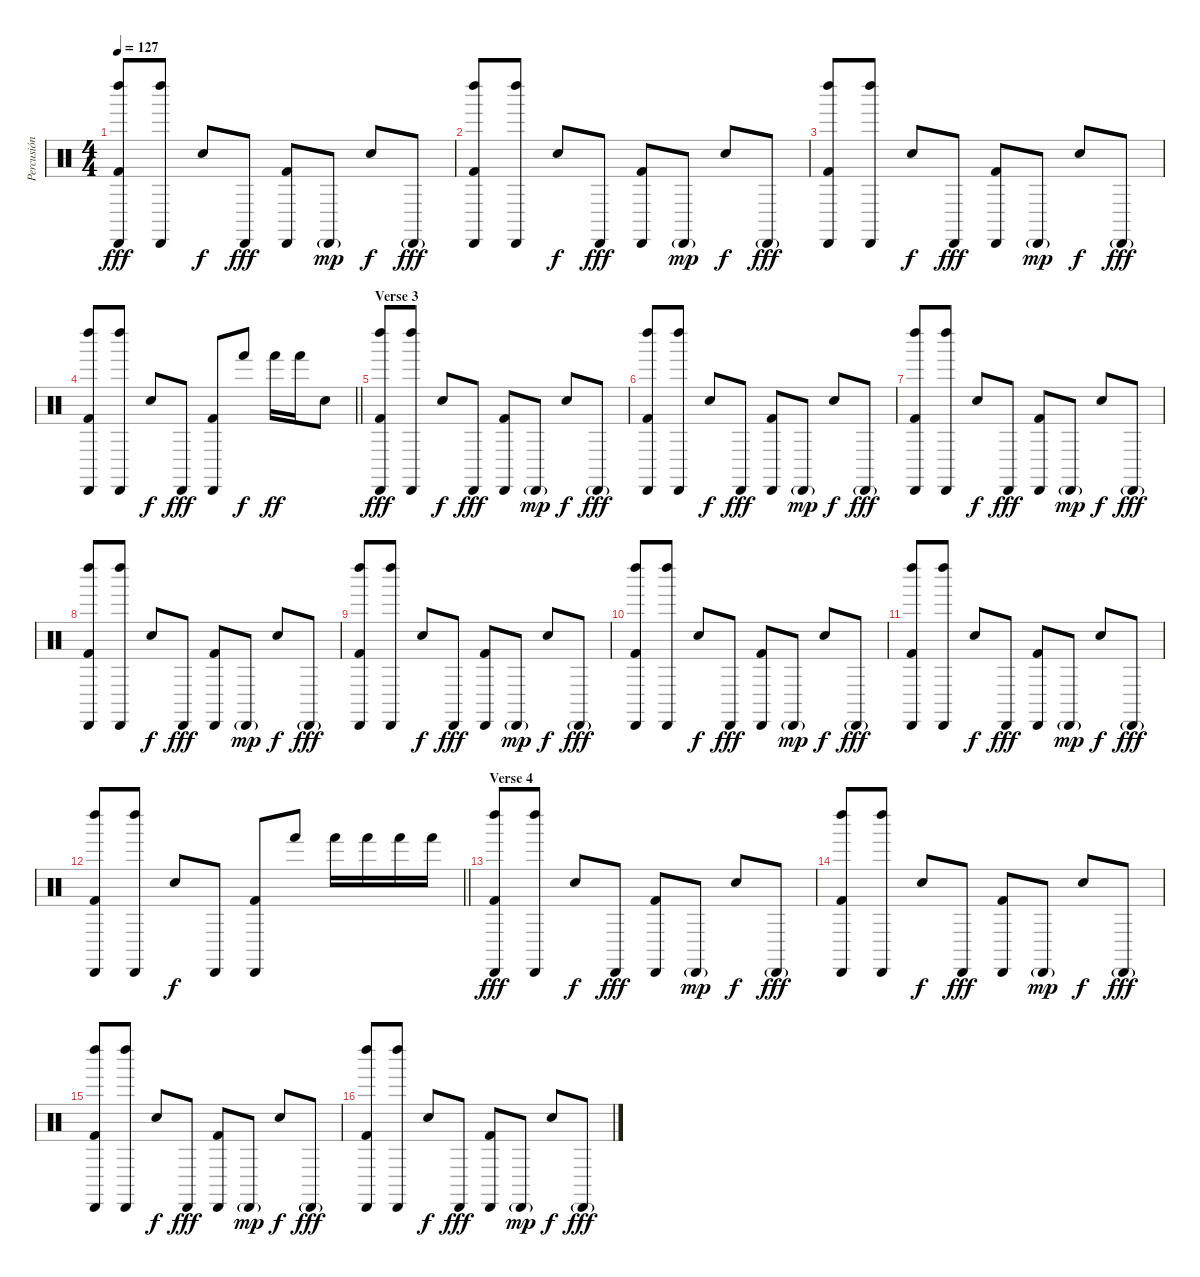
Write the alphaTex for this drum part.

\track ("Percusión" "Percusión") {instrument percussion}
\staff {score}
\articulation defaults
\ts (4 4)
\tempo 127
\clef neutral
\ks c
("Left Maraca (hit)" "Cabasa (hit)" "Kick (hit) 2").8{dy fff} ("Left Maraca (hit)" "Cabasa (hit)").8 "Electric Snare (hit)".8{dy f} "Cabasa (hit)".8{dy fff} ("Cabasa (hit)" "Kick (hit) 2").8 "Cabasa (hit)"{g}.8{dy mp} "Electric Snare (hit)".8{dy f} "Cabasa (hit)"{g}.8{dy fff} |
("Left Maraca (hit)" "Cabasa (hit)" "Kick (hit) 2").8 ("Left Maraca (hit)" "Cabasa (hit)").8 "Electric Snare (hit)".8{dy f} "Cabasa (hit)".8{dy fff} ("Cabasa (hit)" "Kick (hit) 2").8 "Cabasa (hit)"{g}.8{dy mp} "Electric Snare (hit)".8{dy f} "Cabasa (hit)"{g}.8{dy fff} |
("Left Maraca (hit)" "Cabasa (hit)" "Kick (hit) 2").8 ("Left Maraca (hit)" "Cabasa (hit)").8 "Electric Snare (hit)".8{dy f} "Cabasa (hit)".8{dy fff} ("Cabasa (hit)" "Kick (hit) 2").8 "Cabasa (hit)"{g}.8{dy mp} "Electric Snare (hit)".8{dy f} "Cabasa (hit)"{g}.8{dy fff} |
\barLineRight lightlight
("Left Maraca (hit)" "Cabasa (hit)" "Kick (hit) 2").8 ("Left Maraca (hit)" "Cabasa (hit)").8 "Electric Snare (hit)".8{dy f} "Cabasa (hit)".8{dy fff} ("Cabasa (hit)" "Kick (hit) 2").8 "Hand (hit)".8{dy f} "Hand (hit)".16{dy ff} "Hand (hit)".16 "Electric Snare (hit)".8 |
\section ("" "Verse 3")
("Left Maraca (hit)" "Cabasa (hit)" "Kick (hit) 2").8{dy fff} ("Left Maraca (hit)" "Cabasa (hit)").8 "Electric Snare (hit)".8{dy f} "Cabasa (hit)".8{dy fff} ("Cabasa (hit)" "Kick (hit) 2").8 "Cabasa (hit)"{g}.8{dy mp} "Electric Snare (hit)".8{dy f} "Cabasa (hit)"{g}.8{dy fff} |
("Left Maraca (hit)" "Cabasa (hit)" "Kick (hit) 2").8 ("Left Maraca (hit)" "Cabasa (hit)").8 "Electric Snare (hit)".8{dy f} "Cabasa (hit)".8{dy fff} ("Cabasa (hit)" "Kick (hit) 2").8 "Cabasa (hit)"{g}.8{dy mp} "Electric Snare (hit)".8{dy f} "Cabasa (hit)"{g}.8{dy fff} |
("Left Maraca (hit)" "Cabasa (hit)" "Kick (hit) 2").8 ("Left Maraca (hit)" "Cabasa (hit)").8 "Electric Snare (hit)".8{dy f} "Cabasa (hit)".8{dy fff} ("Cabasa (hit)" "Kick (hit) 2").8 "Cabasa (hit)"{g}.8{dy mp} "Electric Snare (hit)".8{dy f} "Cabasa (hit)"{g}.8{dy fff} |
("Left Maraca (hit)" "Cabasa (hit)" "Kick (hit) 2").8 ("Left Maraca (hit)" "Cabasa (hit)").8 "Electric Snare (hit)".8{dy f} "Cabasa (hit)".8{dy fff} ("Cabasa (hit)" "Kick (hit) 2").8 "Cabasa (hit)"{g}.8{dy mp} "Electric Snare (hit)".8{dy f} "Cabasa (hit)"{g}.8{dy fff} |
("Left Maraca (hit)" "Cabasa (hit)" "Kick (hit) 2").8 ("Left Maraca (hit)" "Cabasa (hit)").8 "Electric Snare (hit)".8{dy f} "Cabasa (hit)".8{dy fff} ("Cabasa (hit)" "Kick (hit) 2").8 "Cabasa (hit)"{g}.8{dy mp} "Electric Snare (hit)".8{dy f} "Cabasa (hit)"{g}.8{dy fff} |
("Left Maraca (hit)" "Cabasa (hit)" "Kick (hit) 2").8 ("Left Maraca (hit)" "Cabasa (hit)").8 "Electric Snare (hit)".8{dy f} "Cabasa (hit)".8{dy fff} ("Cabasa (hit)" "Kick (hit) 2").8 "Cabasa (hit)"{g}.8{dy mp} "Electric Snare (hit)".8{dy f} "Cabasa (hit)"{g}.8{dy fff} |
("Left Maraca (hit)" "Cabasa (hit)" "Kick (hit) 2").8 ("Left Maraca (hit)" "Cabasa (hit)").8 "Electric Snare (hit)".8{dy f} "Cabasa (hit)".8{dy fff} ("Cabasa (hit)" "Kick (hit) 2").8 "Cabasa (hit)"{g}.8{dy mp} "Electric Snare (hit)".8{dy f} "Cabasa (hit)"{g}.8{dy fff} |
\barLineRight lightlight
("Left Maraca (hit)" "Cabasa (hit)" "Kick (hit) 2").8 ("Left Maraca (hit)" "Cabasa (hit)").8 "Electric Snare (hit)".8{dy f} "Cabasa (hit)".8 ("Cabasa (hit)" "Kick (hit) 2").8 "Hand (hit)".8 "Hand (hit)".16 "Hand (hit)".16 "Hand (hit)".16 "Hand (hit)".16 |
\section ("" "Verse 4")
("Left Maraca (hit)" "Cabasa (hit)" "Kick (hit) 2").8{dy fff} ("Left Maraca (hit)" "Cabasa (hit)").8 "Electric Snare (hit)".8{dy f} "Cabasa (hit)".8{dy fff} ("Cabasa (hit)" "Kick (hit) 2").8 "Cabasa (hit)"{g}.8{dy mp} "Electric Snare (hit)".8{dy f} "Cabasa (hit)"{g}.8{dy fff} |
("Left Maraca (hit)" "Cabasa (hit)" "Kick (hit) 2").8 ("Left Maraca (hit)" "Cabasa (hit)").8 "Electric Snare (hit)".8{dy f} "Cabasa (hit)".8{dy fff} ("Cabasa (hit)" "Kick (hit) 2").8 "Cabasa (hit)"{g}.8{dy mp} "Electric Snare (hit)".8{dy f} "Cabasa (hit)"{g}.8{dy fff} |
("Left Maraca (hit)" "Cabasa (hit)" "Kick (hit) 2").8 ("Left Maraca (hit)" "Cabasa (hit)").8 "Electric Snare (hit)".8{dy f} "Cabasa (hit)".8{dy fff} ("Cabasa (hit)" "Kick (hit) 2").8 "Cabasa (hit)"{g}.8{dy mp} "Electric Snare (hit)".8{dy f} "Cabasa (hit)"{g}.8{dy fff} |
("Left Maraca (hit)" "Cabasa (hit)" "Kick (hit) 2").8 ("Left Maraca (hit)" "Cabasa (hit)").8 "Electric Snare (hit)".8{dy f} "Cabasa (hit)".8{dy fff} ("Cabasa (hit)" "Kick (hit) 2").8 "Cabasa (hit)"{g}.8{dy mp} "Electric Snare (hit)".8{dy f} "Cabasa (hit)"{g}.8{dy fff}
